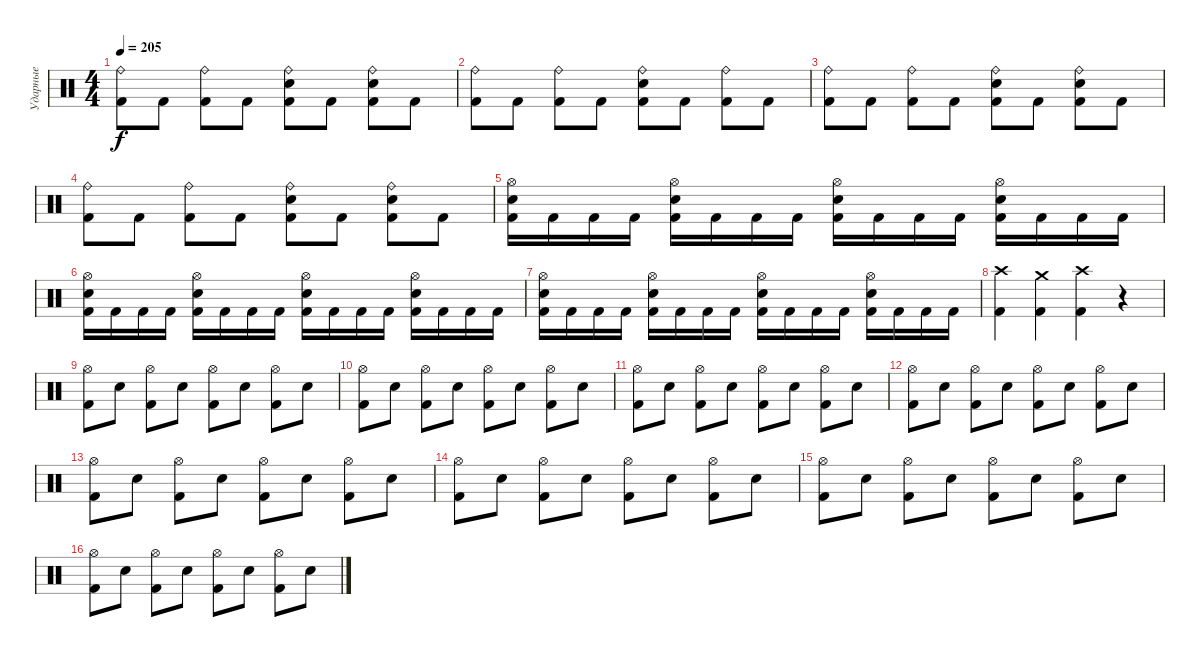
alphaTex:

\track ("Ударные" "Ударные") {instrument percussion}
\staff {score}
\articulation defaults
\ts (4 4)
\tempo 205
\clef neutral
\ks c
("Ride (bell)" "Kick (hit) 2").8{dy f} "Kick (hit) 2".8 ("Ride (bell)" "Kick (hit) 2").8 "Kick (hit) 2".8 ("Ride (bell)" "Electric Snare (hit)" "Kick (hit) 2").8 "Kick (hit) 2".8 ("Ride (bell)" "Electric Snare (hit)" "Kick (hit) 2").8 "Kick (hit) 2".8 |
("Ride (bell)" "Kick (hit) 2").8 "Kick (hit) 2".8 ("Ride (bell)" "Kick (hit) 2").8 "Kick (hit) 2".8 ("Ride (bell)" "Electric Snare (hit)" "Kick (hit) 2").8 "Kick (hit) 2".8 ("Ride (bell)" "Kick (hit) 2").8 "Kick (hit) 2".8 |
("Ride (bell)" "Kick (hit) 2").8 "Kick (hit) 2".8 ("Ride (bell)" "Kick (hit) 2").8 "Kick (hit) 2".8 ("Ride (bell)" "Electric Snare (hit)" "Kick (hit) 2").8 "Kick (hit) 2".8 ("Ride (bell)" "Electric Snare (hit)" "Kick (hit) 2").8 "Kick (hit) 2".8 |
("Ride (bell)" "Kick (hit) 2").8 "Kick (hit) 2".8 ("Ride (bell)" "Kick (hit) 2").8 "Kick (hit) 2".8 ("Ride (bell)" "Electric Snare (hit)" "Kick (hit) 2").8 "Kick (hit) 2".8 ("Ride (bell)" "Electric Snare (hit)" "Kick (hit) 2").8 "Kick (hit) 2".8 |
("Hi-Hat (open)" "Electric Snare (hit)" "Kick (hit) 2").16 "Kick (hit) 2".16 "Kick (hit) 2".16 "Kick (hit) 2".16 ("Hi-Hat (open)" "Electric Snare (hit)" "Kick (hit) 2").16 "Kick (hit) 2".16 "Kick (hit) 2".16 "Kick (hit) 2".16 ("Hi-Hat (open)" "Electric Snare (hit)" "Kick (hit) 2").16 "Kick (hit) 2".16 "Kick (hit) 2".16 "Kick (hit) 2".16 ("Hi-Hat (open)" "Electric Snare (hit)" "Kick (hit) 2").16 "Kick (hit) 2".16 "Kick (hit) 2".16 "Kick (hit) 2".16 |
("Hi-Hat (open)" "Electric Snare (hit)" "Kick (hit) 2").16 "Kick (hit) 2".16 "Kick (hit) 2".16 "Kick (hit) 2".16 ("Hi-Hat (open)" "Electric Snare (hit)" "Kick (hit) 2").16 "Kick (hit) 2".16 "Kick (hit) 2".16 "Kick (hit) 2".16 ("Hi-Hat (open)" "Electric Snare (hit)" "Kick (hit) 2").16 "Kick (hit) 2".16 "Kick (hit) 2".16 "Kick (hit) 2".16 ("Hi-Hat (open)" "Electric Snare (hit)" "Kick (hit) 2").16 "Kick (hit) 2".16 "Kick (hit) 2".16 "Kick (hit) 2".16 |
("Hi-Hat (open)" "Electric Snare (hit)" "Kick (hit) 2").16 "Kick (hit) 2".16 "Kick (hit) 2".16 "Kick (hit) 2".16 ("Hi-Hat (open)" "Electric Snare (hit)" "Kick (hit) 2").16 "Kick (hit) 2".16 "Kick (hit) 2".16 "Kick (hit) 2".16 ("Hi-Hat (open)" "Electric Snare (hit)" "Kick (hit) 2").16 "Kick (hit) 2".16 "Kick (hit) 2".16 "Kick (hit) 2".16 ("Hi-Hat (open)" "Electric Snare (hit)" "Kick (hit) 2").16 "Kick (hit) 2".16 "Kick (hit) 2".16 "Kick (hit) 2".16 |
("Crash high (hit)" "Kick (hit) 2").4 ("Crash medium (hit)" "Kick (hit) 2").4 ("Crash high (hit)" "Kick (hit) 2").4 r.4 |
("Hi-Hat (open)" "Kick (hit) 2").8 "Electric Snare (hit)".8 ("Hi-Hat (open)" "Kick (hit) 2").8 "Electric Snare (hit)".8 ("Hi-Hat (open)" "Kick (hit) 2").8 "Electric Snare (hit)".8 ("Hi-Hat (open)" "Kick (hit) 2").8 "Electric Snare (hit)".8 |
("Hi-Hat (open)" "Kick (hit) 2").8 "Electric Snare (hit)".8 ("Hi-Hat (open)" "Kick (hit) 2").8 "Electric Snare (hit)".8 ("Hi-Hat (open)" "Kick (hit) 2").8 "Electric Snare (hit)".8 ("Hi-Hat (open)" "Kick (hit) 2").8 "Electric Snare (hit)".8 |
("Hi-Hat (open)" "Kick (hit) 2").8 "Electric Snare (hit)".8 ("Hi-Hat (open)" "Kick (hit) 2").8 "Electric Snare (hit)".8 ("Hi-Hat (open)" "Kick (hit) 2").8 "Electric Snare (hit)".8 ("Hi-Hat (open)" "Kick (hit) 2").8 "Electric Snare (hit)".8 |
("Hi-Hat (open)" "Kick (hit) 2").8 "Electric Snare (hit)".8 ("Hi-Hat (open)" "Kick (hit) 2").8 "Electric Snare (hit)".8 ("Hi-Hat (open)" "Kick (hit) 2").8 "Electric Snare (hit)".8 ("Hi-Hat (open)" "Kick (hit) 2").8 "Electric Snare (hit)".8 |
("Hi-Hat (open)" "Kick (hit) 2").8 "Electric Snare (hit)".8 ("Hi-Hat (open)" "Kick (hit) 2").8 "Electric Snare (hit)".8 ("Hi-Hat (open)" "Kick (hit) 2").8 "Electric Snare (hit)".8 ("Hi-Hat (open)" "Kick (hit) 2").8 "Electric Snare (hit)".8 |
("Hi-Hat (open)" "Kick (hit) 2").8 "Electric Snare (hit)".8 ("Hi-Hat (open)" "Kick (hit) 2").8 "Electric Snare (hit)".8 ("Hi-Hat (open)" "Kick (hit) 2").8 "Electric Snare (hit)".8 ("Hi-Hat (open)" "Kick (hit) 2").8 "Electric Snare (hit)".8 |
("Hi-Hat (open)" "Kick (hit) 2").8 "Electric Snare (hit)".8 ("Hi-Hat (open)" "Kick (hit) 2").8 "Electric Snare (hit)".8 ("Hi-Hat (open)" "Kick (hit) 2").8 "Electric Snare (hit)".8 ("Hi-Hat (open)" "Kick (hit) 2").8 "Electric Snare (hit)".8 |
("Hi-Hat (open)" "Kick (hit) 2").8 "Electric Snare (hit)".8 ("Hi-Hat (open)" "Kick (hit) 2").8 "Electric Snare (hit)".8 ("Hi-Hat (open)" "Kick (hit) 2").8 "Electric Snare (hit)".8 ("Hi-Hat (open)" "Kick (hit) 2").8 "Electric Snare (hit)".8
